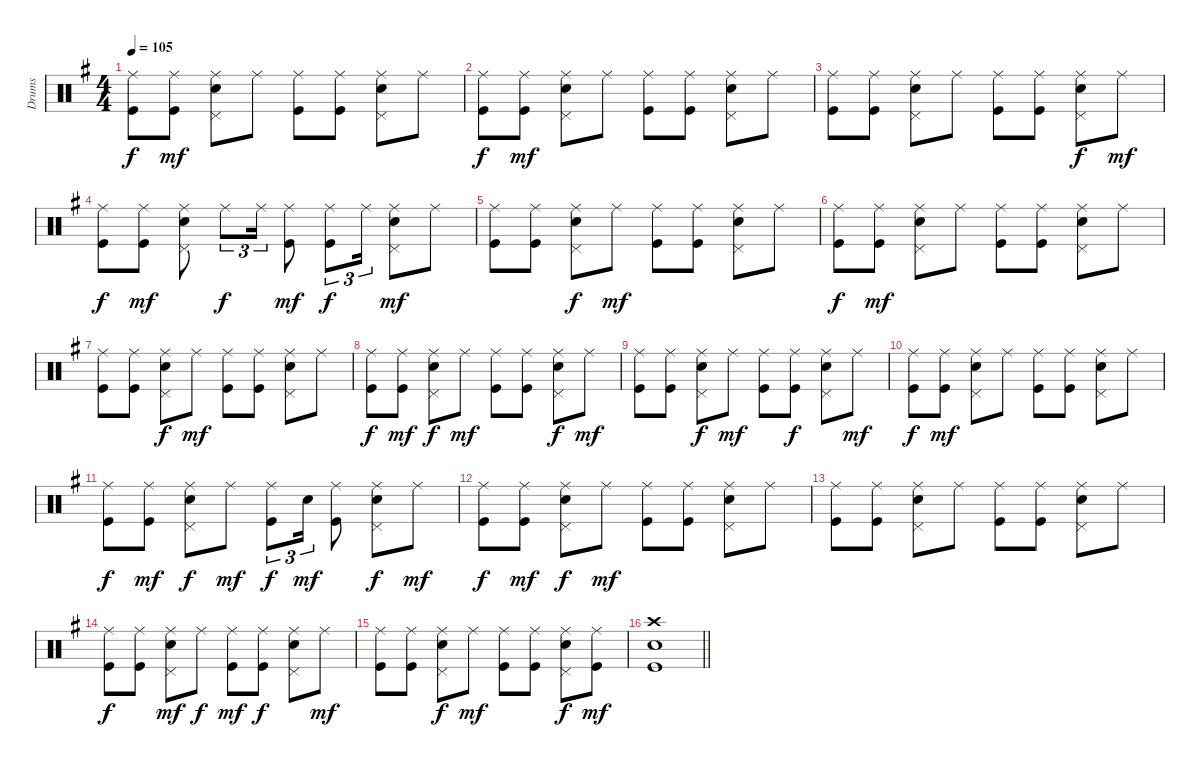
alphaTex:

\track ("Drums" "Drums") {instrument percussion}
\staff {score}
\articulation defaults
\ts (4 4)
\tempo 105
\clef neutral
\ks eminor
("Ride (middle)" "Kick (hit)").8{dy f} ("Ride (middle)" "Kick (hit)").8{dy mf} ("Ride (middle)" "Pedal Hi-Hat (hit)" "Snare (hit) 2").8 "Ride (middle)".8 ("Ride (middle)" "Kick (hit)").8 ("Ride (middle)" "Kick (hit)").8 ("Ride (middle)" "Pedal Hi-Hat (hit)" "Snare (hit) 2").8 "Ride (middle)".8 |
("Ride (middle)" "Kick (hit)").8{dy f} ("Ride (middle)" "Kick (hit)").8{dy mf} ("Ride (middle)" "Pedal Hi-Hat (hit)" "Snare (hit) 2").8 "Ride (middle)".8 ("Ride (middle)" "Kick (hit)").8 ("Ride (middle)" "Kick (hit)").8 ("Ride (middle)" "Pedal Hi-Hat (hit)" "Snare (hit) 2").8 "Ride (middle)".8 |
("Ride (middle)" "Kick (hit)").8 ("Ride (middle)" "Kick (hit)").8 ("Ride (middle)" "Pedal Hi-Hat (hit)" "Snare (hit) 2").8 "Ride (middle)".8 ("Ride (middle)" "Kick (hit)").8 ("Ride (middle)" "Kick (hit)").8 ("Ride (middle)" "Pedal Hi-Hat (hit)" "Snare (hit) 2").8{dy f} "Ride (middle)".8{dy mf} |
("Ride (middle)" "Kick (hit)").8{dy f} ("Ride (middle)" "Kick (hit)").8{dy mf} ("Ride (middle)" "Pedal Hi-Hat (hit)" "Snare (hit) 2").8 "Ride (middle)".8{tu (3 2) dy f} "Ride (middle)".16{tu (3 2)} ("Ride (middle)" "Kick (hit)").8{dy mf} ("Ride (middle)" "Kick (hit)").8{tu (3 2) dy f} "Ride (middle)".16{tu (3 2)} ("Ride (middle)" "Pedal Hi-Hat (hit)" "Snare (hit) 2").8{dy mf} "Ride (middle)".8 |
("Ride (middle)" "Kick (hit)").8 ("Ride (middle)" "Kick (hit)").8 ("Ride (middle)" "Pedal Hi-Hat (hit)" "Snare (hit) 2").8{dy f} "Ride (middle)".8{dy mf} ("Ride (middle)" "Kick (hit)").8 ("Ride (middle)" "Kick (hit)").8 ("Ride (middle)" "Pedal Hi-Hat (hit)" "Snare (hit) 2").8 "Ride (middle)".8 |
("Ride (middle)" "Kick (hit)").8{dy f} ("Ride (middle)" "Kick (hit)").8{dy mf} ("Ride (middle)" "Pedal Hi-Hat (hit)" "Snare (hit) 2").8 "Ride (middle)".8 ("Ride (middle)" "Kick (hit)").8 ("Ride (middle)" "Kick (hit)").8 ("Ride (middle)" "Pedal Hi-Hat (hit)" "Snare (hit) 2").8 "Ride (middle)".8 |
("Ride (middle)" "Kick (hit)").8 ("Ride (middle)" "Kick (hit)").8 ("Ride (middle)" "Pedal Hi-Hat (hit)" "Snare (hit) 2").8{dy f} "Ride (middle)".8{dy mf} ("Ride (middle)" "Kick (hit)").8 ("Ride (middle)" "Kick (hit)").8 ("Ride (middle)" "Pedal Hi-Hat (hit)" "Snare (hit) 2").8 "Ride (middle)".8 |
("Ride (middle)" "Kick (hit)").8{dy f} ("Ride (middle)" "Kick (hit)").8{dy mf} ("Ride (middle)" "Pedal Hi-Hat (hit)" "Snare (hit) 2").8{dy f} "Ride (middle)".8{dy mf} ("Ride (middle)" "Kick (hit)").8 ("Ride (middle)" "Kick (hit)").8 ("Ride (middle)" "Pedal Hi-Hat (hit)" "Snare (hit) 2").8{dy f} "Ride (middle)".8{dy mf} |
("Ride (middle)" "Kick (hit)").8 ("Ride (middle)" "Kick (hit)").8 ("Ride (middle)" "Pedal Hi-Hat (hit)" "Snare (hit) 2").8{dy f} "Ride (middle)".8{dy mf} ("Ride (middle)" "Kick (hit)").8 ("Ride (middle)" "Kick (hit)").8{dy f} ("Ride (middle)" "Pedal Hi-Hat (hit)" "Snare (hit) 2").8 "Ride (middle)".8{dy mf} |
("Ride (middle)" "Kick (hit)").8{dy f} ("Ride (middle)" "Kick (hit)").8{dy mf} ("Ride (middle)" "Pedal Hi-Hat (hit)" "Snare (hit) 2").8 "Ride (middle)".8 ("Ride (middle)" "Kick (hit)").8 ("Ride (middle)" "Kick (hit)").8 ("Ride (middle)" "Pedal Hi-Hat (hit)" "Snare (hit) 2").8 "Ride (middle)".8 |
("Ride (middle)" "Kick (hit)").8{dy f} ("Ride (middle)" "Kick (hit)").8{dy mf} ("Ride (middle)" "Pedal Hi-Hat (hit)" "Snare (hit) 2").8{dy f} "Ride (middle)".8{dy mf} ("Ride (middle)" "Kick (hit)").8{tu (3 2) dy f} "Snare (hit) 2".16{tu (3 2) dy mf} ("Ride (middle)" "Kick (hit)").8 ("Ride (middle)" "Pedal Hi-Hat (hit)" "Snare (hit) 2").8{dy f} "Ride (middle)".8{dy mf} |
("Ride (middle)" "Kick (hit)").8{dy f} ("Ride (middle)" "Kick (hit)").8{dy mf} ("Ride (middle)" "Pedal Hi-Hat (hit)" "Snare (hit) 2").8{dy f} "Ride (middle)".8{dy mf} ("Ride (middle)" "Kick (hit)").8 ("Ride (middle)" "Kick (hit)").8 ("Ride (middle)" "Pedal Hi-Hat (hit)" "Snare (hit) 2").8 "Ride (middle)".8 |
("Ride (middle)" "Kick (hit)").8 ("Ride (middle)" "Kick (hit)").8 ("Ride (middle)" "Pedal Hi-Hat (hit)" "Snare (hit) 2").8 "Ride (middle)".8 ("Ride (middle)" "Kick (hit)").8 ("Ride (middle)" "Kick (hit)").8 ("Ride (middle)" "Pedal Hi-Hat (hit)" "Snare (hit) 2").8 "Ride (middle)".8 |
("Ride (middle)" "Kick (hit)").8{dy f} ("Ride (middle)" "Kick (hit)").8 ("Ride (middle)" "Pedal Hi-Hat (hit)" "Snare (hit) 2").8{dy mf} "Ride (middle)".8{dy f} ("Ride (middle)" "Kick (hit)").8{dy mf} ("Ride (middle)" "Kick (hit)").8{dy f} ("Ride (middle)" "Pedal Hi-Hat (hit)" "Snare (hit) 2").8 "Ride (middle)".8{dy mf} |
("Ride (middle)" "Kick (hit)").8 ("Ride (middle)" "Kick (hit)").8 ("Ride (middle)" "Pedal Hi-Hat (hit)" "Snare (hit) 2").8{dy f} "Ride (middle)".8{dy mf} ("Ride (middle)" "Kick (hit)").8 ("Ride (middle)" "Kick (hit)").8 ("Ride (middle)" "Pedal Hi-Hat (hit)" "Snare (hit) 2").8{dy f} ("Ride (middle)" "Kick (hit)").8{dy mf} |
\barLineRight lightlight
("Crash high (hit)" "Snare (hit) 2" "Kick (hit)").1
